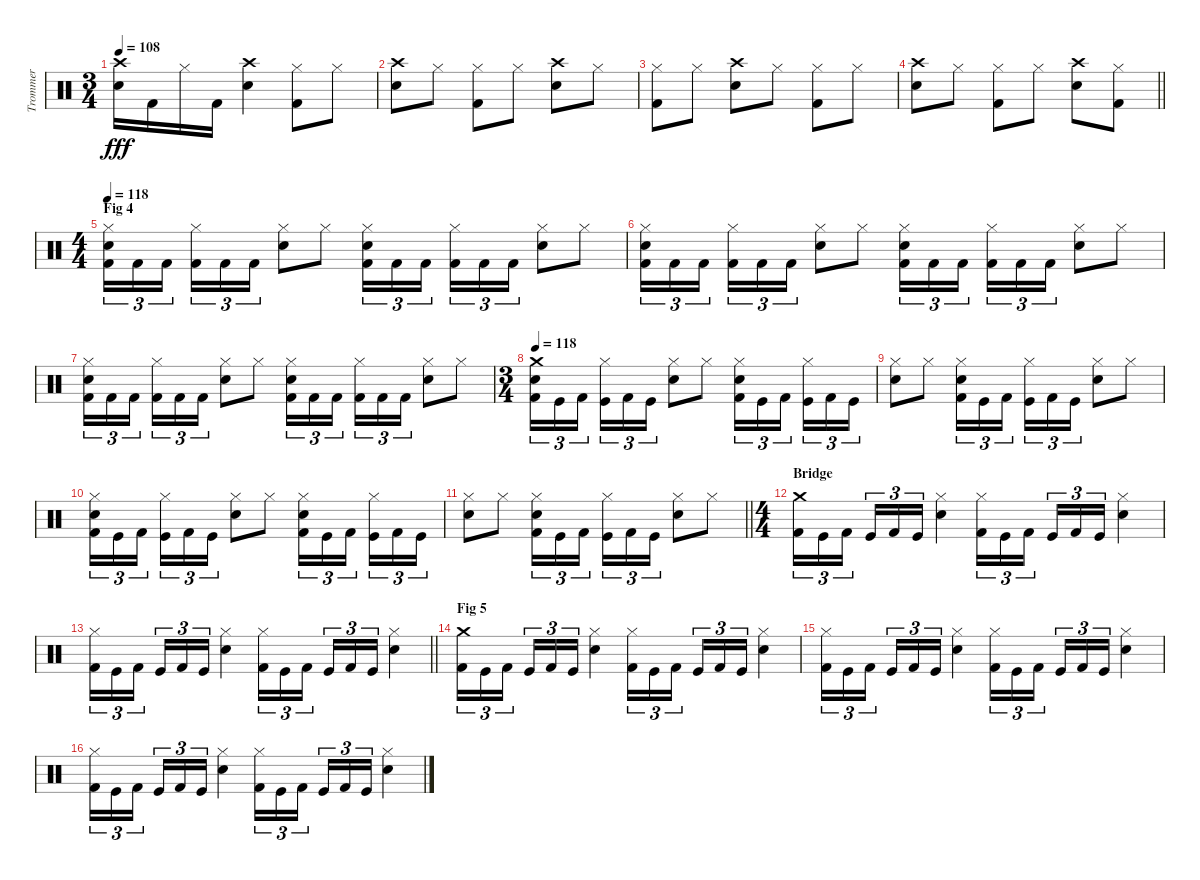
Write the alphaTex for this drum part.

\track ("Trommer" "Trommer") {instrument percussion}
\staff {score}
\articulation defaults
\ts (3 4)
\tempo 108
\clef neutral
\ks c
("Crash high (hit)" "Electric Snare (hit)").16{dy fff} "Kick (hit) 2".16 "Hi-Hat (closed)".16 "Kick (hit) 2".16 ("Crash high (hit)" "Electric Snare (hit)").4 ("Hi-Hat (closed)" "Kick (hit) 2").8 "Hi-Hat (closed)".8 |
("Crash high (hit)" "Electric Snare (hit)").8 "Hi-Hat (closed)".8 ("Hi-Hat (closed)" "Kick (hit) 2").8 "Hi-Hat (closed)".8 ("Crash high (hit)" "Electric Snare (hit)").8 "Hi-Hat (closed)".8 |
("Hi-Hat (closed)" "Kick (hit) 2").8 "Hi-Hat (closed)".8 ("Crash high (hit)" "Electric Snare (hit)").8 "Hi-Hat (closed)".8 ("Hi-Hat (closed)" "Kick (hit) 2").8 "Hi-Hat (closed)".8 |
\barLineRight lightlight
("Crash high (hit)" "Electric Snare (hit)").8 "Hi-Hat (closed)".8 ("Hi-Hat (closed)" "Kick (hit) 2").8 "Hi-Hat (closed)".8 ("Crash high (hit)" "Electric Snare (hit)").8 ("Hi-Hat (closed)" "Kick (hit) 2").8 |
\ts (4 4)
\section ("" "Fig 4")
\tempo 118
("Hi-Hat (closed)" "Electric Snare (hit)" "Kick (hit) 2").16{tu (3 2)} "Kick (hit) 2".16{tu (3 2)} "Kick (hit) 2".16{tu (3 2) beam splitsecondary} ("Hi-Hat (closed)" "Kick (hit) 2").16{tu (3 2)} "Kick (hit) 2".16{tu (3 2)} "Kick (hit) 2".16{tu (3 2)} ("Hi-Hat (closed)" "Electric Snare (hit)").8 "Hi-Hat (closed)".8 ("Hi-Hat (closed)" "Electric Snare (hit)" "Kick (hit) 2").16{tu (3 2)} "Kick (hit) 2".16{tu (3 2)} "Kick (hit) 2".16{tu (3 2) beam splitsecondary} ("Hi-Hat (closed)" "Kick (hit) 2").16{tu (3 2)} "Kick (hit) 2".16{tu (3 2)} "Kick (hit) 2".16{tu (3 2)} ("Hi-Hat (closed)" "Electric Snare (hit)").8 "Hi-Hat (closed)".8 |
("Hi-Hat (closed)" "Electric Snare (hit)" "Kick (hit) 2").16{tu (3 2)} "Kick (hit) 2".16{tu (3 2)} "Kick (hit) 2".16{tu (3 2) beam splitsecondary} ("Hi-Hat (closed)" "Kick (hit) 2").16{tu (3 2)} "Kick (hit) 2".16{tu (3 2)} "Kick (hit) 2".16{tu (3 2)} ("Hi-Hat (closed)" "Electric Snare (hit)").8 "Hi-Hat (closed)".8 ("Hi-Hat (closed)" "Electric Snare (hit)" "Kick (hit) 2").16{tu (3 2)} "Kick (hit) 2".16{tu (3 2)} "Kick (hit) 2".16{tu (3 2) beam splitsecondary} ("Hi-Hat (closed)" "Kick (hit) 2").16{tu (3 2)} "Kick (hit) 2".16{tu (3 2)} "Kick (hit) 2".16{tu (3 2)} ("Hi-Hat (closed)" "Electric Snare (hit)").8 "Hi-Hat (closed)".8 |
("Hi-Hat (closed)" "Electric Snare (hit)" "Kick (hit) 2").16{tu (3 2)} "Kick (hit) 2".16{tu (3 2)} "Kick (hit) 2".16{tu (3 2) beam splitsecondary} ("Hi-Hat (closed)" "Kick (hit) 2").16{tu (3 2)} "Kick (hit) 2".16{tu (3 2)} "Kick (hit) 2".16{tu (3 2)} ("Hi-Hat (closed)" "Electric Snare (hit)").8 "Hi-Hat (closed)".8 ("Hi-Hat (closed)" "Electric Snare (hit)" "Kick (hit) 2").16{tu (3 2)} "Kick (hit) 2".16{tu (3 2)} "Kick (hit) 2".16{tu (3 2) beam splitsecondary} ("Hi-Hat (closed)" "Kick (hit) 2").16{tu (3 2)} "Kick (hit) 2".16{tu (3 2)} "Kick (hit) 2".16{tu (3 2)} ("Hi-Hat (closed)" "Electric Snare (hit)").8 "Hi-Hat (closed)".8 |
\ts (3 4)
\tempo 118
("Crash medium (hit)" "Electric Snare (hit)" "Kick (hit) 2").16{tu (3 2)} "Kick (hit)".16{tu (3 2)} "Kick (hit) 2".16{tu (3 2) beam splitsecondary} ("Hi-Hat (closed)" "Kick (hit)").16{tu (3 2)} "Kick (hit) 2".16{tu (3 2)} "Kick (hit)".16{tu (3 2)} ("Hi-Hat (closed)" "Electric Snare (hit)").8 "Hi-Hat (closed)".8 ("Hi-Hat (closed)" "Electric Snare (hit)" "Kick (hit) 2").16{tu (3 2)} "Kick (hit)".16{tu (3 2)} "Kick (hit) 2".16{tu (3 2) beam splitsecondary} ("Hi-Hat (closed)" "Kick (hit)").16{tu (3 2)} "Kick (hit) 2".16{tu (3 2)} "Kick (hit)".16{tu (3 2)} |
("Hi-Hat (closed)" "Electric Snare (hit)").8 "Hi-Hat (closed)".8 ("Hi-Hat (closed)" "Electric Snare (hit)" "Kick (hit) 2").16{tu (3 2)} "Kick (hit)".16{tu (3 2)} "Kick (hit) 2".16{tu (3 2) beam splitsecondary} ("Hi-Hat (closed)" "Kick (hit)").16{tu (3 2)} "Kick (hit) 2".16{tu (3 2)} "Kick (hit)".16{tu (3 2)} ("Hi-Hat (closed)" "Electric Snare (hit)").8 "Hi-Hat (closed)".8 |
("Hi-Hat (closed)" "Electric Snare (hit)" "Kick (hit) 2").16{tu (3 2)} "Kick (hit)".16{tu (3 2)} "Kick (hit) 2".16{tu (3 2) beam splitsecondary} ("Hi-Hat (closed)" "Kick (hit)").16{tu (3 2)} "Kick (hit) 2".16{tu (3 2)} "Kick (hit)".16{tu (3 2)} ("Hi-Hat (closed)" "Electric Snare (hit)").8 "Hi-Hat (closed)".8 ("Hi-Hat (closed)" "Electric Snare (hit)" "Kick (hit) 2").16{tu (3 2)} "Kick (hit)".16{tu (3 2)} "Kick (hit) 2".16{tu (3 2) beam splitsecondary} ("Hi-Hat (closed)" "Kick (hit)").16{tu (3 2)} "Kick (hit) 2".16{tu (3 2)} "Kick (hit)".16{tu (3 2)} |
\barLineRight lightlight
("Hi-Hat (closed)" "Electric Snare (hit)").8 "Hi-Hat (closed)".8 ("Hi-Hat (closed)" "Electric Snare (hit)" "Kick (hit) 2").16{tu (3 2)} "Kick (hit)".16{tu (3 2)} "Kick (hit) 2".16{tu (3 2) beam splitsecondary} ("Hi-Hat (closed)" "Kick (hit)").16{tu (3 2)} "Kick (hit) 2".16{tu (3 2)} "Kick (hit)".16{tu (3 2)} ("Hi-Hat (closed)" "Electric Snare (hit)").8 "Hi-Hat (closed)".8 |
\ts (4 4)
\section ("" "Bridge")
("Crash medium (hit)" "Kick (hit) 2").16{tu (3 2)} "Kick (hit)".16{tu (3 2)} "Kick (hit) 2".16{tu (3 2) beam splitsecondary} "Kick (hit)".16{tu (3 2)} "Kick (hit) 2".16{tu (3 2)} "Kick (hit)".16{tu (3 2)} ("Hi-Hat (closed)" "Electric Snare (hit)").4 ("Hi-Hat (closed)" "Kick (hit) 2").16{tu (3 2)} "Kick (hit)".16{tu (3 2)} "Kick (hit) 2".16{tu (3 2) beam splitsecondary} "Kick (hit)".16{tu (3 2)} "Kick (hit) 2".16{tu (3 2)} "Kick (hit)".16{tu (3 2)} ("Hi-Hat (closed)" "Electric Snare (hit)").4 |
\barLineRight lightlight
("Hi-Hat (closed)" "Kick (hit) 2").16{tu (3 2)} "Kick (hit)".16{tu (3 2)} "Kick (hit) 2".16{tu (3 2) beam splitsecondary} "Kick (hit)".16{tu (3 2)} "Kick (hit) 2".16{tu (3 2)} "Kick (hit)".16{tu (3 2)} ("Hi-Hat (closed)" "Electric Snare (hit)").4 ("Hi-Hat (closed)" "Kick (hit) 2").16{tu (3 2)} "Kick (hit)".16{tu (3 2)} "Kick (hit) 2".16{tu (3 2) beam splitsecondary} "Kick (hit)".16{tu (3 2)} "Kick (hit) 2".16{tu (3 2)} "Kick (hit)".16{tu (3 2)} ("Hi-Hat (closed)" "Electric Snare (hit)").4 |
\section ("" "Fig 5")
("Crash medium (hit)" "Kick (hit) 2").16{tu (3 2)} "Kick (hit)".16{tu (3 2)} "Kick (hit) 2".16{tu (3 2) beam splitsecondary} "Kick (hit)".16{tu (3 2)} "Kick (hit) 2".16{tu (3 2)} "Kick (hit)".16{tu (3 2)} ("Hi-Hat (closed)" "Electric Snare (hit)").4 ("Hi-Hat (closed)" "Kick (hit) 2").16{tu (3 2)} "Kick (hit)".16{tu (3 2)} "Kick (hit) 2".16{tu (3 2) beam splitsecondary} "Kick (hit)".16{tu (3 2)} "Kick (hit) 2".16{tu (3 2)} "Kick (hit)".16{tu (3 2)} ("Hi-Hat (closed)" "Electric Snare (hit)").4 |
("Hi-Hat (closed)" "Kick (hit) 2").16{tu (3 2)} "Kick (hit)".16{tu (3 2)} "Kick (hit) 2".16{tu (3 2) beam splitsecondary} "Kick (hit)".16{tu (3 2)} "Kick (hit) 2".16{tu (3 2)} "Kick (hit)".16{tu (3 2)} ("Hi-Hat (closed)" "Electric Snare (hit)").4 ("Hi-Hat (closed)" "Kick (hit) 2").16{tu (3 2)} "Kick (hit)".16{tu (3 2)} "Kick (hit) 2".16{tu (3 2) beam splitsecondary} "Kick (hit)".16{tu (3 2)} "Kick (hit) 2".16{tu (3 2)} "Kick (hit)".16{tu (3 2)} ("Hi-Hat (closed)" "Electric Snare (hit)").4 |
("Hi-Hat (closed)" "Kick (hit) 2").16{tu (3 2)} "Kick (hit)".16{tu (3 2)} "Kick (hit) 2".16{tu (3 2) beam splitsecondary} "Kick (hit)".16{tu (3 2)} "Kick (hit) 2".16{tu (3 2)} "Kick (hit)".16{tu (3 2)} ("Hi-Hat (closed)" "Electric Snare (hit)").4 ("Hi-Hat (closed)" "Kick (hit) 2").16{tu (3 2)} "Kick (hit)".16{tu (3 2)} "Kick (hit) 2".16{tu (3 2) beam splitsecondary} "Kick (hit)".16{tu (3 2)} "Kick (hit) 2".16{tu (3 2)} "Kick (hit)".16{tu (3 2)} ("Hi-Hat (closed)" "Electric Snare (hit)").4
